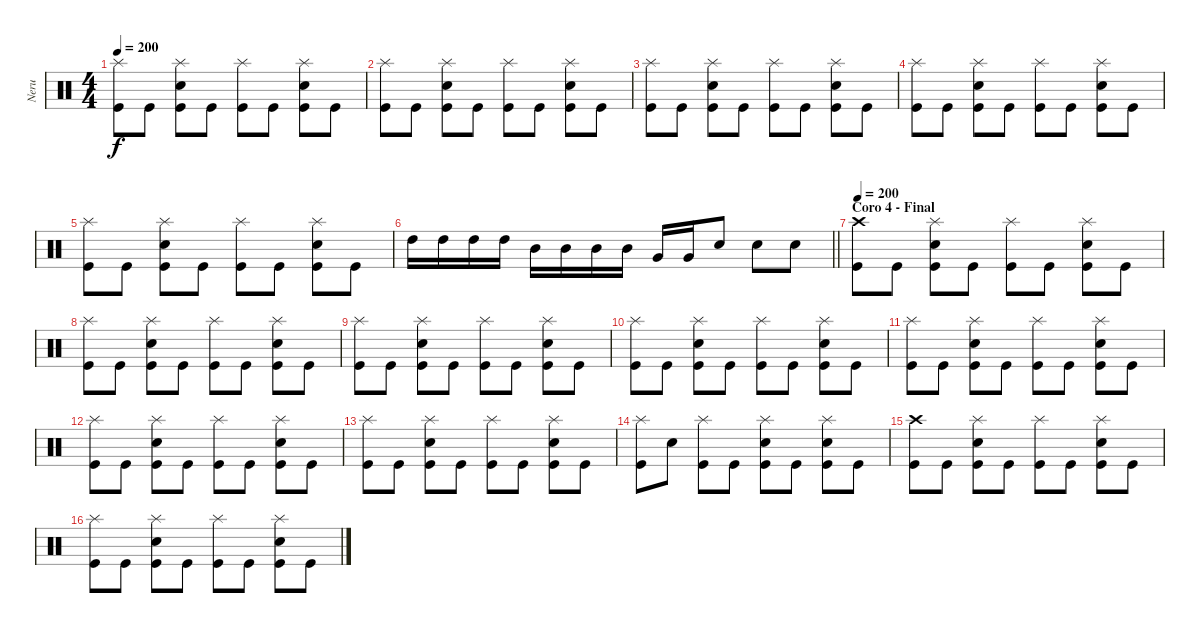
\track ("Neru" "Neru") {instrument percussion}
\staff {score}
\articulation defaults
\ts (4 4)
\tempo 200
\clef neutral
\ks c
("Splash (hit)" "Kick (hit)").8{dy f} "Kick (hit)".8 ("Splash (hit)" "Electric Snare (hit)" "Kick (hit)").8 "Kick (hit)".8 ("Splash (hit)" "Kick (hit)").8 "Kick (hit)".8 ("Splash (hit)" "Electric Snare (hit)" "Kick (hit)").8 "Kick (hit)".8 |
("Splash (hit)" "Kick (hit)").8 "Kick (hit)".8 ("Splash (hit)" "Electric Snare (hit)" "Kick (hit)").8 "Kick (hit)".8 ("Splash (hit)" "Kick (hit)").8 "Kick (hit)".8 ("Splash (hit)" "Electric Snare (hit)" "Kick (hit)").8 "Kick (hit)".8 |
("Splash (hit)" "Kick (hit)").8 "Kick (hit)".8 ("Splash (hit)" "Electric Snare (hit)" "Kick (hit)").8 "Kick (hit)".8 ("Splash (hit)" "Kick (hit)").8 "Kick (hit)".8 ("Splash (hit)" "Electric Snare (hit)" "Kick (hit)").8 "Kick (hit)".8 |
("Splash (hit)" "Kick (hit)").8 "Kick (hit)".8 ("Splash (hit)" "Electric Snare (hit)" "Kick (hit)").8 "Kick (hit)".8 ("Splash (hit)" "Kick (hit)").8 "Kick (hit)".8 ("Splash (hit)" "Electric Snare (hit)" "Kick (hit)").8 "Kick (hit)".8 |
("Splash (hit)" "Kick (hit)").8 "Kick (hit)".8 ("Splash (hit)" "Electric Snare (hit)" "Kick (hit)").8 "Kick (hit)".8 ("Splash (hit)" "Kick (hit)").8 "Kick (hit)".8 ("Splash (hit)" "Electric Snare (hit)" "Kick (hit)").8 "Kick (hit)".8 |
\barLineRight lightlight "High Tom (hit)".16 "High Tom (hit)".16 "High Tom (hit)".16 "High Tom (hit)".16 "Mid Tom (hit)".16 "Mid Tom (hit)".16 "Mid Tom (hit)".16 "Mid Tom (hit)".16 "Very Low Tom (hit)".16 "Very Low Tom (hit)".16 "Electric Snare (hit)".8 "Electric Snare (hit)".8 "Electric Snare (hit)".8
|
\section ("" "Coro 4 - Final")
\tempo 200
("Crash high (hit)" "Kick (hit)").8 "Kick (hit)".8 ("Splash (hit)" "Electric Snare (hit)" "Kick (hit)").8 "Kick (hit)".8 ("Splash (hit)" "Kick (hit)").8 "Kick (hit)".8 ("Splash (hit)" "Electric Snare (hit)" "Kick (hit)").8 "Kick (hit)".8 |
("Splash (hit)" "Kick (hit)").8 "Kick (hit)".8 ("Splash (hit)" "Electric Snare (hit)" "Kick (hit)").8 "Kick (hit)".8 ("Splash (hit)" "Kick (hit)").8 "Kick (hit)".8 ("Splash (hit)" "Electric Snare (hit)" "Kick (hit)").8 "Kick (hit)".8 |
("Splash (hit)" "Kick (hit)").8 "Kick (hit)".8 ("Splash (hit)" "Electric Snare (hit)" "Kick (hit)").8 "Kick (hit)".8 ("Splash (hit)" "Kick (hit)").8 "Kick (hit)".8 ("Splash (hit)" "Electric Snare (hit)" "Kick (hit)").8 "Kick (hit)".8 |
("Splash (hit)" "Kick (hit)").8 "Kick (hit)".8 ("Splash (hit)" "Electric Snare (hit)" "Kick (hit)").8 "Kick (hit)".8 ("Splash (hit)" "Kick (hit)").8 "Kick (hit)".8 ("Splash (hit)" "Electric Snare (hit)" "Kick (hit)").8 "Kick (hit)".8 |
("Splash (hit)" "Kick (hit)").8 "Kick (hit)".8 ("Splash (hit)" "Electric Snare (hit)" "Kick (hit)").8 "Kick (hit)".8 ("Splash (hit)" "Kick (hit)").8 "Kick (hit)".8 ("Splash (hit)" "Electric Snare (hit)" "Kick (hit)").8 "Kick (hit)".8 |
("Splash (hit)" "Kick (hit)").8 "Kick (hit)".8 ("Splash (hit)" "Electric Snare (hit)" "Kick (hit)").8 "Kick (hit)".8 ("Splash (hit)" "Kick (hit)").8 "Kick (hit)".8 ("Splash (hit)" "Electric Snare (hit)" "Kick (hit)").8 "Kick (hit)".8 |
("Splash (hit)" "Kick (hit)").8 "Kick (hit)".8 ("Splash (hit)" "Electric Snare (hit)" "Kick (hit)").8 "Kick (hit)".8 ("Splash (hit)" "Kick (hit)").8 "Kick (hit)".8 ("Splash (hit)" "Electric Snare (hit)" "Kick (hit)").8 "Kick (hit)".8 |
("Splash (hit)" "Kick (hit)").8 "Electric Snare (hit)".8 ("Splash (hit)" "Kick (hit)").8 "Kick (hit)".8 ("Splash (hit)" "Electric Snare (hit)" "Kick (hit)").8 "Kick (hit)".8 ("Splash (hit)" "Electric Snare (hit)" "Kick (hit)").8 "Kick (hit)".8 |
("Crash high (hit)" "Kick (hit)").8 "Kick (hit)".8 ("Splash (hit)" "Electric Snare (hit)" "Kick (hit)").8 "Kick (hit)".8 ("Splash (hit)" "Kick (hit)").8 "Kick (hit)".8 ("Splash (hit)" "Electric Snare (hit)" "Kick (hit)").8 "Kick (hit)".8 |
("Splash (hit)" "Kick (hit)").8 "Kick (hit)".8 ("Splash (hit)" "Electric Snare (hit)" "Kick (hit)").8 "Kick (hit)".8 ("Splash (hit)" "Kick (hit)").8 "Kick (hit)".8 ("Splash (hit)" "Electric Snare (hit)" "Kick (hit)").8 "Kick (hit)".8
